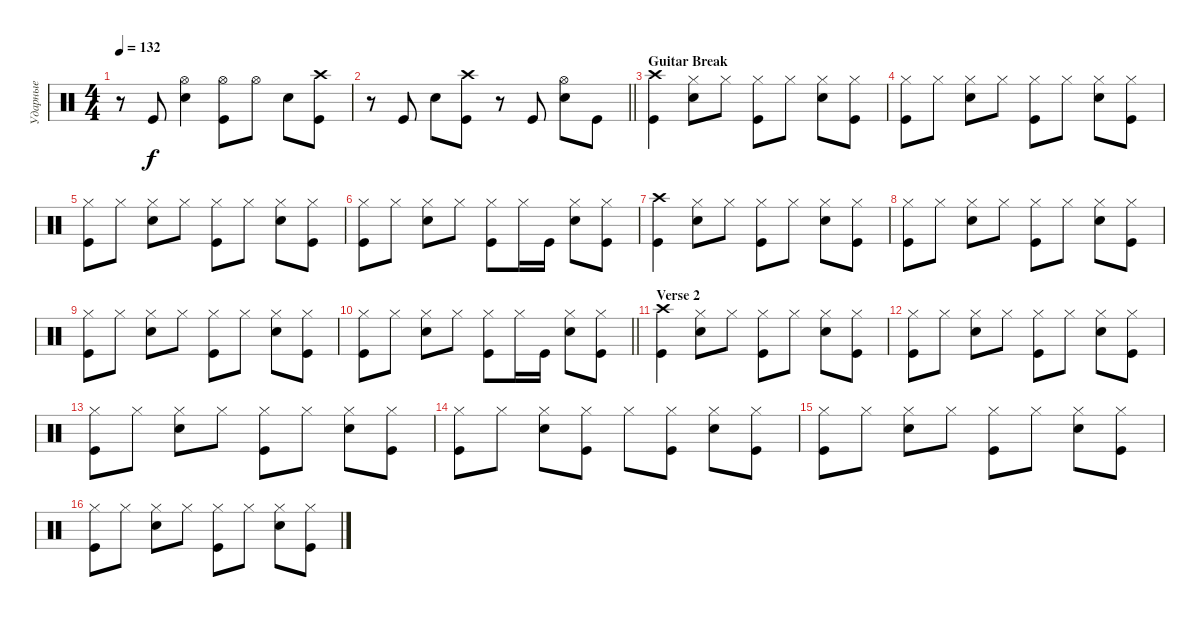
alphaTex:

\track ("Ударные" "Ударные") {instrument percussion}
\staff {score}
\articulation defaults
\ts (4 4)
\tempo 132
\clef neutral
\ks c
r.8{dy f} "Kick (hit)".8 ("Snare (hit) 2" "Hi-Hat (open)").4 ("Hi-Hat (open)" "Kick (hit)").8 "Hi-Hat (open)".8 "Snare (hit) 2".8 ("Kick (hit)" "Crash high (hit)").8 |
\barLineRight lightlight
r.8 "Kick (hit)".8 "Snare (hit) 2".8 ("Crash high (hit)" "Kick (hit)").8 r.8 "Kick (hit)".8 ("Snare (hit) 2" "Hi-Hat (open)").8 "Kick (hit)".8 |
\section ("" "Guitar Break")
("Kick (hit)" "Crash high (hit)").4 ("Snare (hit) 2" "Hi-Hat (closed)").8 "Hi-Hat (closed)".8 ("Kick (hit)" "Hi-Hat (closed)").8 "Hi-Hat (closed)".8 ("Snare (hit) 2" "Hi-Hat (closed)").8 ("Kick (hit)" "Hi-Hat (closed)").8 |
("Kick (hit)" "Hi-Hat (closed)").8 "Hi-Hat (closed)".8 ("Snare (hit) 2" "Hi-Hat (closed)").8 "Hi-Hat (closed)".8 ("Kick (hit)" "Hi-Hat (closed)").8 "Hi-Hat (closed)".8 ("Snare (hit) 2" "Hi-Hat (closed)").8 ("Kick (hit)" "Hi-Hat (closed)").8 |
("Kick (hit)" "Hi-Hat (closed)").8 "Hi-Hat (closed)".8 ("Snare (hit) 2" "Hi-Hat (closed)").8 "Hi-Hat (closed)".8 ("Kick (hit)" "Hi-Hat (closed)").8 "Hi-Hat (closed)".8 ("Snare (hit) 2" "Hi-Hat (closed)").8 ("Kick (hit)" "Hi-Hat (closed)").8 |
("Kick (hit)" "Hi-Hat (closed)").8 "Hi-Hat (closed)".8 ("Snare (hit) 2" "Hi-Hat (closed)").8 "Hi-Hat (closed)".8 ("Kick (hit)" "Hi-Hat (closed)").8 "Hi-Hat (closed)".16 "Kick (hit)".16 ("Snare (hit) 2" "Hi-Hat (closed)").8 ("Kick (hit)" "Hi-Hat (closed)").8 |
("Kick (hit)" "Crash high (hit)").4 ("Snare (hit) 2" "Hi-Hat (closed)").8 "Hi-Hat (closed)".8 ("Kick (hit)" "Hi-Hat (closed)").8 "Hi-Hat (closed)".8 ("Snare (hit) 2" "Hi-Hat (closed)").8 ("Kick (hit)" "Hi-Hat (closed)").8 |
("Kick (hit)" "Hi-Hat (closed)").8 "Hi-Hat (closed)".8 ("Snare (hit) 2" "Hi-Hat (closed)").8 "Hi-Hat (closed)".8 ("Kick (hit)" "Hi-Hat (closed)").8 "Hi-Hat (closed)".8 ("Snare (hit) 2" "Hi-Hat (closed)").8 ("Kick (hit)" "Hi-Hat (closed)").8 |
("Kick (hit)" "Hi-Hat (closed)").8 "Hi-Hat (closed)".8 ("Snare (hit) 2" "Hi-Hat (closed)").8 "Hi-Hat (closed)".8 ("Kick (hit)" "Hi-Hat (closed)").8 "Hi-Hat (closed)".8 ("Snare (hit) 2" "Hi-Hat (closed)").8 ("Kick (hit)" "Hi-Hat (closed)").8 |
\barLineRight lightlight
("Kick (hit)" "Hi-Hat (closed)").8 "Hi-Hat (closed)".8 ("Snare (hit) 2" "Hi-Hat (closed)").8 "Hi-Hat (closed)".8 ("Kick (hit)" "Hi-Hat (closed)").8 "Hi-Hat (closed)".16 "Kick (hit)".16 ("Snare (hit) 2" "Hi-Hat (closed)").8 ("Kick (hit)" "Hi-Hat (closed)").8 |
\section ("" "Verse 2")
("Kick (hit)" "Crash high (hit)").4 ("Snare (hit) 2" "Hi-Hat (closed)").8 "Hi-Hat (closed)".8 ("Kick (hit)" "Hi-Hat (closed)").8 "Hi-Hat (closed)".8 ("Snare (hit) 2" "Hi-Hat (closed)").8 ("Kick (hit)" "Hi-Hat (closed)").8 |
("Kick (hit)" "Hi-Hat (closed)").8 "Hi-Hat (closed)".8 ("Snare (hit) 2" "Hi-Hat (closed)").8 "Hi-Hat (closed)".8 ("Kick (hit)" "Hi-Hat (closed)").8 "Hi-Hat (closed)".8 ("Snare (hit) 2" "Hi-Hat (closed)").8 ("Kick (hit)" "Hi-Hat (closed)").8 |
("Kick (hit)" "Hi-Hat (closed)").8 "Hi-Hat (closed)".8 ("Snare (hit) 2" "Hi-Hat (closed)").8 "Hi-Hat (closed)".8 ("Kick (hit)" "Hi-Hat (closed)").8 "Hi-Hat (closed)".8 ("Snare (hit) 2" "Hi-Hat (closed)").8 ("Kick (hit)" "Hi-Hat (closed)").8 |
("Kick (hit)" "Hi-Hat (closed)").8 "Hi-Hat (closed)".8 ("Snare (hit) 2" "Hi-Hat (closed)").8 ("Hi-Hat (closed)" "Kick (hit)").8 "Hi-Hat (closed)".8 ("Hi-Hat (closed)" "Kick (hit)").8 ("Snare (hit) 2" "Hi-Hat (closed)").8 ("Kick (hit)" "Hi-Hat (closed)").8 |
("Kick (hit)" "Hi-Hat (closed)").8 "Hi-Hat (closed)".8 ("Snare (hit) 2" "Hi-Hat (closed)").8 "Hi-Hat (closed)".8 ("Kick (hit)" "Hi-Hat (closed)").8 "Hi-Hat (closed)".8 ("Snare (hit) 2" "Hi-Hat (closed)").8 ("Kick (hit)" "Hi-Hat (closed)").8 |
("Kick (hit)" "Hi-Hat (closed)").8 "Hi-Hat (closed)".8 ("Snare (hit) 2" "Hi-Hat (closed)").8 "Hi-Hat (closed)".8 ("Kick (hit)" "Hi-Hat (closed)").8 "Hi-Hat (closed)".8 ("Snare (hit) 2" "Hi-Hat (closed)").8 ("Kick (hit)" "Hi-Hat (closed)").8
